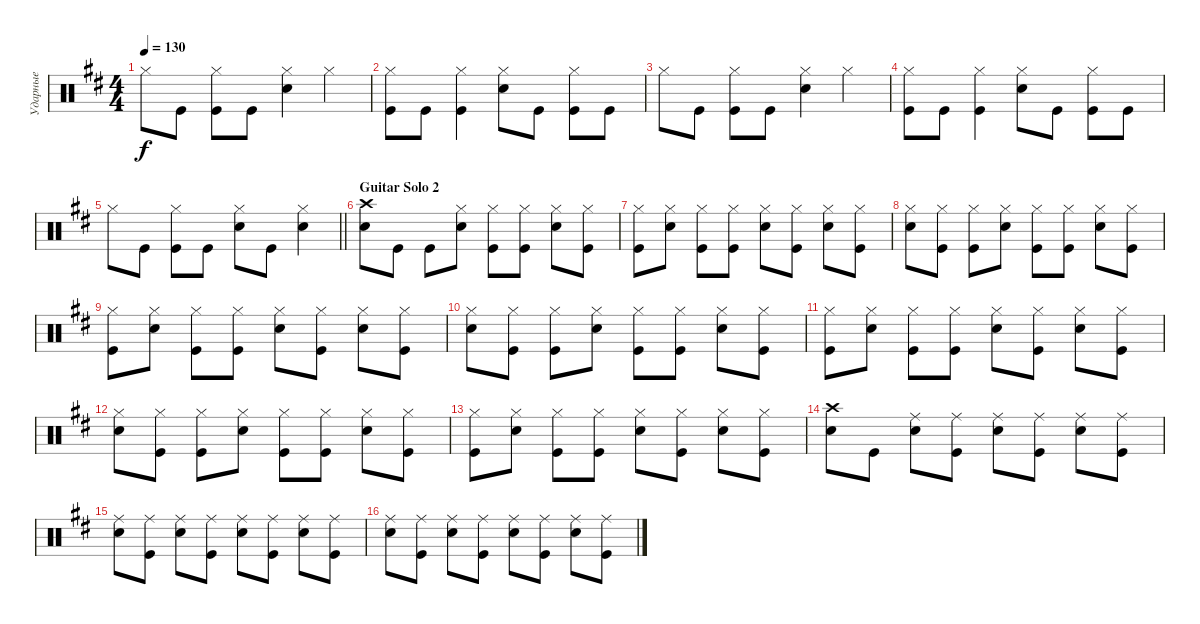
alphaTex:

\track ("Ударные" "Ударные") {instrument percussion}
\staff {score}
\articulation defaults
\ts (4 4)
\tempo 130
\clef neutral
\ks bminor "Hi-Hat (closed)".8{dy f} "Kick (hit)".8
("Kick (hit)" "Hi-Hat (closed)").8 "Kick (hit)".8 ("Snare (hit) 2" "Hi-Hat (closed)").4 "Hi-Hat (closed)".4 |
("Kick (hit)" "Hi-Hat (closed)").8 "Kick (hit)".8 ("Kick (hit)" "Hi-Hat (closed)").4 ("Snare (hit) 2" "Hi-Hat (closed)").8 "Kick (hit)".8 ("Kick (hit)" "Hi-Hat (closed)").8 "Kick (hit)".8 |
"Hi-Hat (closed)".8 "Kick (hit)".8 ("Kick (hit)" "Hi-Hat (closed)").8 "Kick (hit)".8 ("Snare (hit) 2" "Hi-Hat (closed)").4 "Hi-Hat (closed)".4 |
("Kick (hit)" "Hi-Hat (closed)").8 "Kick (hit)".8 ("Kick (hit)" "Hi-Hat (closed)").4 ("Snare (hit) 2" "Hi-Hat (closed)").8 "Kick (hit)".8 ("Kick (hit)" "Hi-Hat (closed)").8 "Kick (hit)".8 |
\barLineRight lightlight "Hi-Hat (closed)".8 "Kick (hit)".8
("Kick (hit)" "Hi-Hat (closed)").8 "Kick (hit)".8 ("Snare (hit) 2" "Hi-Hat (closed)").8 "Kick (hit)".8 ("Hi-Hat (closed)" "Snare (hit) 2").4 |
\section ("" "Guitar Solo 2")
("Snare (hit) 2" "Crash high (hit)").8 "Kick (hit)".8 "Kick (hit)".8 ("Snare (hit) 2" "Hi-Hat (closed)").8 ("Kick (hit)" "Hi-Hat (closed)").8 ("Kick (hit)" "Hi-Hat (closed)").8 ("Snare (hit) 2" "Hi-Hat (closed)").8 ("Kick (hit)" "Hi-Hat (closed)").8 |
("Kick (hit)" "Hi-Hat (closed)").8 ("Snare (hit) 2" "Hi-Hat (closed)").8 ("Kick (hit)" "Hi-Hat (closed)").8 ("Kick (hit)" "Hi-Hat (closed)").8 ("Snare (hit) 2" "Hi-Hat (closed)").8 ("Kick (hit)" "Hi-Hat (closed)").8 ("Snare (hit) 2" "Hi-Hat (closed)").8 ("Kick (hit)" "Hi-Hat (closed)").8 |
("Snare (hit) 2" "Hi-Hat (closed)").8 ("Kick (hit)" "Hi-Hat (closed)").8 ("Kick (hit)" "Hi-Hat (closed)").8 ("Snare (hit) 2" "Hi-Hat (closed)").8 ("Kick (hit)" "Hi-Hat (closed)").8 ("Kick (hit)" "Hi-Hat (closed)").8 ("Snare (hit) 2" "Hi-Hat (closed)").8 ("Kick (hit)" "Hi-Hat (closed)").8 |
("Kick (hit)" "Hi-Hat (closed)").8 ("Snare (hit) 2" "Hi-Hat (closed)").8 ("Kick (hit)" "Hi-Hat (closed)").8 ("Kick (hit)" "Hi-Hat (closed)").8 ("Snare (hit) 2" "Hi-Hat (closed)").8 ("Kick (hit)" "Hi-Hat (closed)").8 ("Snare (hit) 2" "Hi-Hat (closed)").8 ("Kick (hit)" "Hi-Hat (closed)").8 |
("Snare (hit) 2" "Hi-Hat (closed)").8 ("Kick (hit)" "Hi-Hat (closed)").8 ("Kick (hit)" "Hi-Hat (closed)").8 ("Snare (hit) 2" "Hi-Hat (closed)").8 ("Kick (hit)" "Hi-Hat (closed)").8 ("Kick (hit)" "Hi-Hat (closed)").8 ("Snare (hit) 2" "Hi-Hat (closed)").8 ("Kick (hit)" "Hi-Hat (closed)").8 |
("Kick (hit)" "Hi-Hat (closed)").8 ("Snare (hit) 2" "Hi-Hat (closed)").8 ("Kick (hit)" "Hi-Hat (closed)").8 ("Kick (hit)" "Hi-Hat (closed)").8 ("Snare (hit) 2" "Hi-Hat (closed)").8 ("Kick (hit)" "Hi-Hat (closed)").8 ("Snare (hit) 2" "Hi-Hat (closed)").8 ("Kick (hit)" "Hi-Hat (closed)").8 |
("Snare (hit) 2" "Hi-Hat (closed)").8 ("Kick (hit)" "Hi-Hat (closed)").8 ("Kick (hit)" "Hi-Hat (closed)").8 ("Snare (hit) 2" "Hi-Hat (closed)").8 ("Kick (hit)" "Hi-Hat (closed)").8 ("Kick (hit)" "Hi-Hat (closed)").8 ("Snare (hit) 2" "Hi-Hat (closed)").8 ("Kick (hit)" "Hi-Hat (closed)").8 |
("Kick (hit)" "Hi-Hat (closed)").8 ("Snare (hit) 2" "Hi-Hat (closed)").8 ("Kick (hit)" "Hi-Hat (closed)").8 ("Kick (hit)" "Hi-Hat (closed)").8 ("Snare (hit) 2" "Hi-Hat (closed)").8 ("Kick (hit)" "Hi-Hat (closed)").8 ("Snare (hit) 2" "Hi-Hat (closed)").8 ("Kick (hit)" "Hi-Hat (closed)").8 |
("Snare (hit) 2" "Crash high (hit)").8 "Kick (hit)".8 ("Snare (hit) 2" "Ride (middle)").8 ("Kick (hit)" "Ride (middle)").8 ("Snare (hit) 2" "Ride (middle)").8 ("Kick (hit)" "Ride (middle)").8 ("Snare (hit) 2" "Ride (middle)").8 ("Ride (middle)" "Kick (hit)").8 |
("Snare (hit) 2" "Ride (middle)").8 ("Kick (hit)" "Ride (middle)").8 ("Snare (hit) 2" "Ride (middle)").8 ("Kick (hit)" "Ride (middle)").8 ("Snare (hit) 2" "Ride (middle)").8 ("Kick (hit)" "Ride (middle)").8 ("Snare (hit) 2" "Ride (middle)").8 ("Ride (middle)" "Kick (hit)").8 |
("Snare (hit) 2" "Ride (middle)").8 ("Kick (hit)" "Ride (middle)").8 ("Snare (hit) 2" "Ride (middle)").8 ("Kick (hit)" "Ride (middle)").8 ("Snare (hit) 2" "Ride (middle)").8 ("Kick (hit)" "Ride (middle)").8 ("Snare (hit) 2" "Ride (middle)").8 ("Ride (middle)" "Kick (hit)").8
